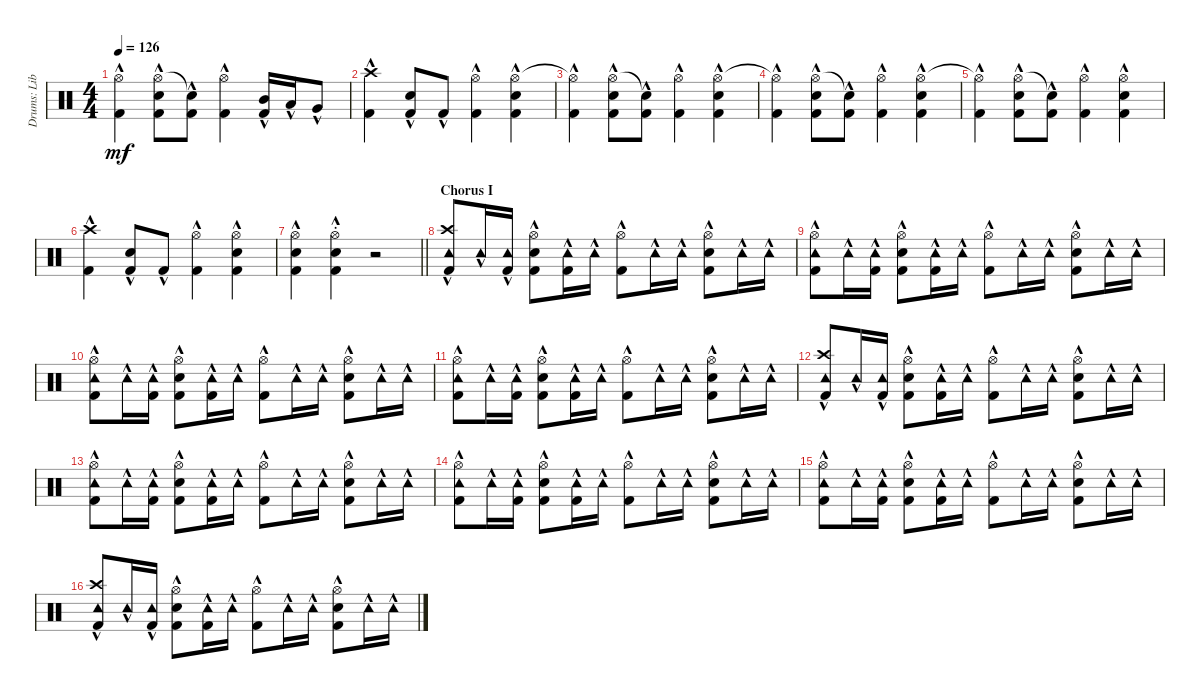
\track ("Drums: Liberty" "Drums: Lib") {instrument percussion}
\staff {score}
\articulation defaults
\ts (4 4)
\tempo 126
\clef neutral
\ks c
("Hi-Hat (open)"{t} "Kick (hit) 2"{hac}).4{dy mf} ("Hi-Hat (open)" "Snare (hit) 2"{hac} "Kick (hit) 2"{hac}).8 ("Snare (hit)"{t} "Kick (hit) 2"{hac}).8 ("Hi-Hat (open)"{hac} "Kick (hit) 2"{hac}).4 ("Mid Tom (hit)"{hac} "Kick (hit) 2"{hac}).16 "Low Tom (hit)"{hac}.16 "Very Low Tom (hit)"{hac}.8 |
("Crash high (hit)"{hac} "Kick (hit) 2"{hac}).4 ("Snare (hit) 2"{hac} "Kick (hit) 2"{hac}).8 "Kick (hit) 2"{hac}.8 ("Hi-Hat (open)"{hac} "Kick (hit) 2"{hac}).4 ("Hi-Hat (open)"{hac} "Snare (hit) 2"{hac} "Kick (hit) 2"{hac}).4 |
("Hi-Hat (open)"{t} "Kick (hit) 2"{hac}).4 ("Hi-Hat (open)" "Snare (hit) 2"{hac} "Kick (hit) 2"{hac}).8 ("Snare (hit)"{t} "Kick (hit) 2"{hac}).8 ("Hi-Hat (open)"{hac} "Kick (hit) 2"{hac}).4 ("Hi-Hat (open)"{hac} "Snare (hit) 2"{hac} "Kick (hit) 2"{hac}).4 |
("Hi-Hat (open)"{t} "Kick (hit) 2"{hac}).4 ("Hi-Hat (open)" "Snare (hit) 2"{hac} "Kick (hit) 2"{hac}).8 ("Snare (hit)"{t} "Kick (hit) 2"{hac}).8 ("Hi-Hat (open)"{hac} "Kick (hit) 2"{hac}).4 ("Hi-Hat (open)"{hac} "Snare (hit) 2"{hac} "Kick (hit) 2"{hac}).4 |
("Hi-Hat (open)"{t} "Kick (hit) 2"{hac}).4 ("Hi-Hat (open)" "Snare (hit) 2"{hac} "Kick (hit) 2"{hac}).8 ("Snare (hit)"{t} "Kick (hit) 2"{hac}).8 ("Hi-Hat (open)"{hac} "Kick (hit) 2"{hac}).4 ("Hi-Hat (open)"{hac} "Snare (hit) 2"{hac} "Kick (hit) 2"{hac}).4 |
("Crash high (hit)"{hac} "Kick (hit) 2"{hac}).4 ("Snare (hit) 2"{hac} "Kick (hit) 2"{hac}).8 "Kick (hit) 2"{hac}.8 ("Hi-Hat (open)"{hac} "Kick (hit) 2"{hac}).4 ("Hi-Hat (open)"{hac} "Snare (hit) 2"{hac} "Kick (hit) 2"{hac}).4 |
\barLineRight lightlight
("Hi-Hat (open)"{hac} "Snare (hit) 2"{hac} "Kick (hit) 2"{hac}).4 ("Hi-Hat (open)"{hac st} "Snare (hit) 2"{hac st} "Kick (hit) 2"{hac st}).4 r.2 |
\section ("" "Chorus I")
("Crash high (hit)" "Tambourine (hit)"{hac} "Kick (hit) 2"{hac}).8 "Tambourine (hit)"{hac}.16 ("Tambourine (hit)"{hac} "Kick (hit) 2"{hac}).16 ("Hi-Hat (open)" "Snare (hit) 2"{hac} "Kick (hit) 2").8 ("Tambourine (hit)"{hac} "Kick (hit) 2"{hac}).16 "Tambourine (hit)"{hac}.16 ("Hi-Hat (open)" "Kick (hit) 2"{hac}).8 "Tambourine (hit)"{hac}.16 "Tambourine (hit)"{hac}.16 ("Hi-Hat (open)" "Snare (hit) 2"{hac} "Kick (hit) 2").8 "Tambourine (hit)"{hac}.16 "Tambourine (hit)"{hac}.16 |
("Hi-Hat (open)" "Tambourine (hit)"{hac} "Kick (hit) 2"{hac}).8 "Tambourine (hit)"{hac}.16 ("Tambourine (hit)"{hac} "Kick (hit) 2"{hac}).16 ("Hi-Hat (open)" "Snare (hit) 2"{hac} "Kick (hit) 2").8 ("Tambourine (hit)"{hac} "Kick (hit) 2"{hac}).16 "Tambourine (hit)"{hac}.16 ("Hi-Hat (open)" "Kick (hit) 2"{hac}).8 "Tambourine (hit)"{hac}.16 "Tambourine (hit)"{hac}.16 ("Hi-Hat (open)" "Snare (hit) 2"{hac} "Kick (hit) 2").8 "Tambourine (hit)"{hac}.16 "Tambourine (hit)"{hac}.16 |
("Hi-Hat (open)" "Tambourine (hit)"{hac} "Kick (hit) 2"{hac}).8 "Tambourine (hit)"{hac}.16 ("Tambourine (hit)"{hac} "Kick (hit) 2"{hac}).16 ("Hi-Hat (open)" "Snare (hit) 2"{hac} "Kick (hit) 2").8 ("Tambourine (hit)"{hac} "Kick (hit) 2"{hac}).16 "Tambourine (hit)"{hac}.16 ("Hi-Hat (open)" "Kick (hit) 2"{hac}).8 "Tambourine (hit)"{hac}.16 "Tambourine (hit)"{hac}.16 ("Hi-Hat (open)" "Snare (hit) 2"{hac} "Kick (hit) 2").8 "Tambourine (hit)"{hac}.16 "Tambourine (hit)"{hac}.16 |
("Hi-Hat (open)" "Tambourine (hit)"{hac} "Kick (hit) 2"{hac}).8 "Tambourine (hit)"{hac}.16 ("Tambourine (hit)"{hac} "Kick (hit) 2"{hac}).16 ("Hi-Hat (open)" "Snare (hit) 2"{hac} "Kick (hit) 2").8 ("Tambourine (hit)"{hac} "Kick (hit) 2"{hac}).16 "Tambourine (hit)"{hac}.16 ("Hi-Hat (open)" "Kick (hit) 2"{hac}).8 "Tambourine (hit)"{hac}.16 "Tambourine (hit)"{hac}.16 ("Hi-Hat (open)" "Snare (hit) 2"{hac} "Kick (hit) 2").8 "Tambourine (hit)"{hac}.16 "Tambourine (hit)"{hac}.16 |
("Crash high (hit)" "Tambourine (hit)"{hac} "Kick (hit) 2"{hac}).8 "Tambourine (hit)"{hac}.16 ("Tambourine (hit)"{hac} "Kick (hit) 2"{hac}).16 ("Hi-Hat (open)" "Snare (hit) 2"{hac} "Kick (hit) 2").8 ("Tambourine (hit)"{hac} "Kick (hit) 2"{hac}).16 "Tambourine (hit)"{hac}.16 ("Hi-Hat (open)" "Kick (hit) 2"{hac}).8 "Tambourine (hit)"{hac}.16 "Tambourine (hit)"{hac}.16 ("Hi-Hat (open)" "Snare (hit) 2"{hac} "Kick (hit) 2").8 "Tambourine (hit)"{hac}.16 "Tambourine (hit)"{hac}.16 |
("Hi-Hat (open)" "Tambourine (hit)"{hac} "Kick (hit) 2"{hac}).8 "Tambourine (hit)"{hac}.16 ("Tambourine (hit)"{hac} "Kick (hit) 2"{hac}).16 ("Hi-Hat (open)" "Snare (hit) 2"{hac} "Kick (hit) 2").8 ("Tambourine (hit)"{hac} "Kick (hit) 2"{hac}).16 "Tambourine (hit)"{hac}.16 ("Hi-Hat (open)" "Kick (hit) 2"{hac}).8 "Tambourine (hit)"{hac}.16 "Tambourine (hit)"{hac}.16 ("Hi-Hat (open)" "Snare (hit) 2"{hac} "Kick (hit) 2").8 "Tambourine (hit)"{hac}.16 "Tambourine (hit)"{hac}.16 |
("Hi-Hat (open)" "Tambourine (hit)"{hac} "Kick (hit) 2"{hac}).8 "Tambourine (hit)"{hac}.16 ("Tambourine (hit)"{hac} "Kick (hit) 2"{hac}).16 ("Hi-Hat (open)" "Snare (hit) 2"{hac} "Kick (hit) 2").8 ("Tambourine (hit)"{hac} "Kick (hit) 2"{hac}).16 "Tambourine (hit)"{hac}.16 ("Hi-Hat (open)" "Kick (hit) 2"{hac}).8 "Tambourine (hit)"{hac}.16 "Tambourine (hit)"{hac}.16 ("Hi-Hat (open)" "Snare (hit) 2"{hac} "Kick (hit) 2").8 "Tambourine (hit)"{hac}.16 "Tambourine (hit)"{hac}.16 |
("Hi-Hat (open)" "Tambourine (hit)"{hac} "Kick (hit) 2"{hac}).8 "Tambourine (hit)"{hac}.16 ("Tambourine (hit)"{hac} "Kick (hit) 2"{hac}).16 ("Hi-Hat (open)" "Snare (hit) 2"{hac} "Kick (hit) 2").8 ("Tambourine (hit)"{hac} "Kick (hit) 2"{hac}).16 "Tambourine (hit)"{hac}.16 ("Hi-Hat (open)" "Kick (hit) 2"{hac}).8 "Tambourine (hit)"{hac}.16 "Tambourine (hit)"{hac}.16 ("Hi-Hat (open)" "Snare (hit) 2"{hac} "Kick (hit) 2").8 "Tambourine (hit)"{hac}.16 "Tambourine (hit)"{hac}.16 |
("Crash high (hit)" "Tambourine (hit)"{hac} "Kick (hit) 2"{hac}).8 "Tambourine (hit)"{hac}.16 ("Tambourine (hit)"{hac} "Kick (hit) 2"{hac}).16 ("Hi-Hat (open)" "Snare (hit) 2"{hac} "Kick (hit) 2").8 ("Tambourine (hit)"{hac} "Kick (hit) 2"{hac}).16 "Tambourine (hit)"{hac}.16 ("Hi-Hat (open)" "Kick (hit) 2"{hac}).8 "Tambourine (hit)"{hac}.16 "Tambourine (hit)"{hac}.16 ("Hi-Hat (open)" "Snare (hit) 2"{hac} "Kick (hit) 2").8 "Tambourine (hit)"{hac}.16 "Tambourine (hit)"{hac}.16
